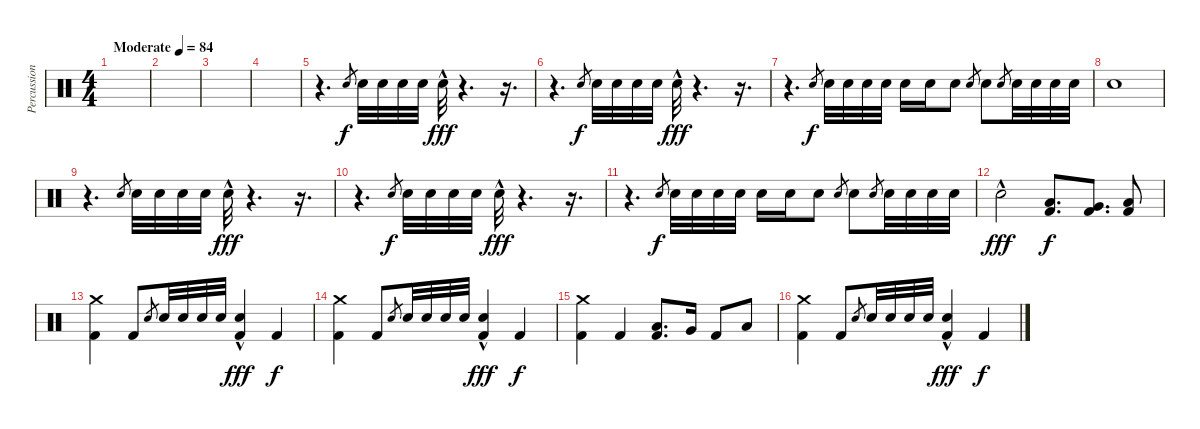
\track ("Percussion" "Percussion") {instrument percussion}
\staff {score}
\articulation defaults
\ts (4 4)
\tempo (84 "Moderate")
\clef neutral
\ks c
|
|
|
|
r.4{d} "Electric Snare (hit)".8{gr} "Electric Snare (hit)".32 "Electric Snare (hit)".32 "Electric Snare (hit)".32 "Electric Snare (hit)".32 "Electric Snare (hit)"{hac}.32{dy fff} r.4{d} r.16{d} |
r.4{d} "Electric Snare (hit)".8{gr dy f} "Electric Snare (hit)".32 "Electric Snare (hit)".32 "Electric Snare (hit)".32 "Electric Snare (hit)".32 "Electric Snare (hit)"{hac}.32{dy fff} r.4{d} r.16{d} |
r.4{d} "Electric Snare (hit)".8{gr dy f} "Electric Snare (hit)".32 "Electric Snare (hit)".32 "Electric Snare (hit)".32 "Electric Snare (hit)".32 "Electric Snare (hit)".16 "Electric Snare (hit)".16 "Electric Snare (hit)".8 "Electric Snare (hit)".8{gr} "Electric Snare (hit)".8 "Electric Snare (hit)".8{gr} "Electric Snare (hit)".32 "Electric Snare (hit)".32 "Electric Snare (hit)".32 "Electric Snare (hit)".32 |
"Electric Snare (hit)".1 |
r.4{d} "Electric Snare (hit)".8{gr} "Electric Snare (hit)".32 "Electric Snare (hit)".32 "Electric Snare (hit)".32 "Electric Snare (hit)".32 "Electric Snare (hit)"{hac}.32{dy fff} r.4{d} r.16{d} |
r.4{d} "Electric Snare (hit)".8{gr dy f} "Electric Snare (hit)".32 "Electric Snare (hit)".32 "Electric Snare (hit)".32 "Electric Snare (hit)".32 "Electric Snare (hit)"{hac}.32{dy fff} r.4{d} r.16{d} |
r.4{d} "Electric Snare (hit)".8{gr dy f} "Electric Snare (hit)".32 "Electric Snare (hit)".32 "Electric Snare (hit)".32 "Electric Snare (hit)".32 "Electric Snare (hit)".16 "Electric Snare (hit)".16 "Electric Snare (hit)".8 "Electric Snare (hit)".8{gr} "Electric Snare (hit)".8 "Electric Snare (hit)".8{gr} "Electric Snare (hit)".32 "Electric Snare (hit)".32 "Electric Snare (hit)".32 "Electric Snare (hit)".32 |
"Electric Snare (hit)"{hac}.2{dy fff} ("Low Tom (hit)" "Kick (hit) 2").8{d dy f volume 13} ("Very Low Tom (hit)" "Kick (hit) 2").8{d} ("Low Floor Tom (hit)" "Kick (hit) 2").8 |
("Crash medium (hit)" "Kick (hit) 2").4 "Kick (hit) 2".8 "Electric Snare (hit)".8{gr} "Electric Snare (hit)".32 "Electric Snare (hit)".32 "Electric Snare (hit)".32 "Electric Snare (hit)".32 ("Electric Snare (hit)"{hac} "Kick (hit) 2").4{dy fff} "Kick (hit) 2".4{dy f} |
("Crash medium (hit)" "Kick (hit) 2").4 "Kick (hit) 2".8 "Electric Snare (hit)".8{gr} "Electric Snare (hit)".32 "Electric Snare (hit)".32 "Electric Snare (hit)".32 "Electric Snare (hit)".32 ("Electric Snare (hit)"{hac} "Kick (hit) 2").4{dy fff} "Kick (hit) 2".4{dy f} |
("Crash medium (hit)" "Kick (hit) 2").4 "Kick (hit) 2".4 ("Low Tom (hit)" "Kick (hit) 2").8{d} "Very Low Tom (hit)".16 "Kick (hit) 2".8 "Low Floor Tom (hit)".8 |
("Crash medium (hit)" "Kick (hit) 2").4 "Kick (hit) 2".8 "Electric Snare (hit)".8{gr} "Electric Snare (hit)".32 "Electric Snare (hit)".32 "Electric Snare (hit)".32 "Electric Snare (hit)".32 ("Electric Snare (hit)"{hac} "Kick (hit) 2").4{dy fff} "Kick (hit) 2".4{dy f}
